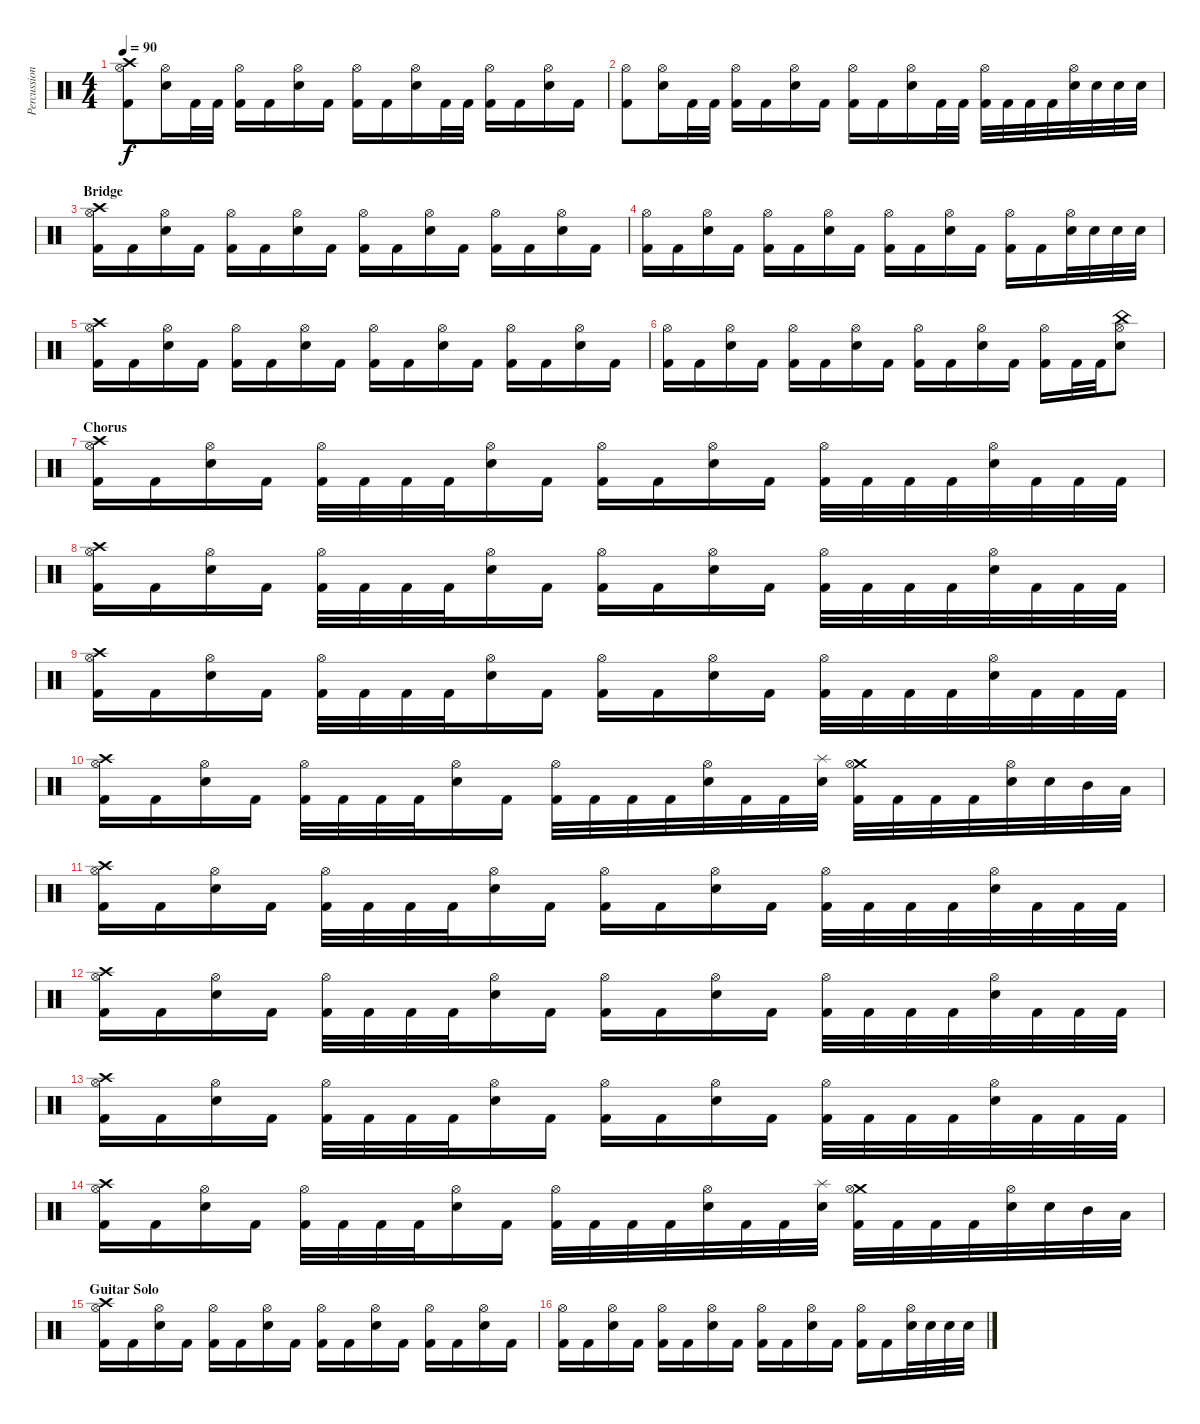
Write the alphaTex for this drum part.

\track ("Percussions" "Percussion") {instrument percussion}
\staff {score}
\articulation defaults
\ts (4 4)
\tempo 90
\clef neutral
\ks c
("Crash high (hit)" "Hi-Hat (open)" "Kick (hit) 2").8{dy f} ("Hi-Hat (open)" "Electric Snare (hit)").16 "Kick (hit) 2".32 "Kick (hit) 2".32 ("Hi-Hat (open)" "Kick (hit) 2").16 "Kick (hit) 2".16 ("Hi-Hat (open)" "Electric Snare (hit)").16 "Kick (hit) 2".16 ("Hi-Hat (open)" "Kick (hit) 2").16 "Kick (hit) 2".16 ("Hi-Hat (open)" "Electric Snare (hit)").16 "Kick (hit) 2".32 "Kick (hit) 2".32 ("Hi-Hat (open)" "Kick (hit) 2").16 "Kick (hit) 2".16 ("Hi-Hat (open)" "Electric Snare (hit)").16 "Kick (hit) 2".16 |
("Hi-Hat (open)" "Kick (hit) 2").8 ("Hi-Hat (open)" "Electric Snare (hit)").16 "Kick (hit) 2".32 "Kick (hit) 2".32 ("Hi-Hat (open)" "Kick (hit) 2").16 "Kick (hit) 2".16 ("Hi-Hat (open)" "Electric Snare (hit)").16 "Kick (hit) 2".16 ("Hi-Hat (open)" "Kick (hit) 2").16 "Kick (hit) 2".16 ("Hi-Hat (open)" "Electric Snare (hit)").16 "Kick (hit) 2".32 "Kick (hit) 2".32 ("Hi-Hat (open)" "Kick (hit) 2").32 "Kick (hit) 2".32 "Kick (hit) 2".32 "Kick (hit) 2".32 ("Hi-Hat (open)" "Electric Snare (hit)").32 "Electric Snare (hit)".32 "Electric Snare (hit)".32 "Electric Snare (hit)".32 |
\section ("" "Bridge")
("Crash high (hit)" "Hi-Hat (open)" "Kick (hit) 2").16 "Kick (hit) 2".16 ("Hi-Hat (open)" "Electric Snare (hit)").16 "Kick (hit) 2".16 ("Hi-Hat (open)" "Kick (hit) 2").16 "Kick (hit) 2".16 ("Hi-Hat (open)" "Electric Snare (hit)").16 "Kick (hit) 2".16 ("Hi-Hat (open)" "Kick (hit) 2").16 "Kick (hit) 2".16 ("Hi-Hat (open)" "Electric Snare (hit)").16 "Kick (hit) 2".16 ("Hi-Hat (open)" "Kick (hit) 2").16 "Kick (hit) 2".16 ("Hi-Hat (open)" "Electric Snare (hit)").16 "Kick (hit) 2".16 |
("Hi-Hat (open)" "Kick (hit) 2").16 "Kick (hit) 2".16 ("Hi-Hat (open)" "Electric Snare (hit)").16 "Kick (hit) 2".16 ("Hi-Hat (open)" "Kick (hit) 2").16 "Kick (hit) 2".16 ("Hi-Hat (open)" "Electric Snare (hit)").16 "Kick (hit) 2".16 ("Hi-Hat (open)" "Kick (hit) 2").16 "Kick (hit) 2".16 ("Hi-Hat (open)" "Electric Snare (hit)").16 "Kick (hit) 2".16 ("Hi-Hat (open)" "Kick (hit) 2").16 "Kick (hit) 2".16 ("Hi-Hat (open)" "Electric Snare (hit)").32 "Electric Snare (hit)".32 "Electric Snare (hit)".32 "Electric Snare (hit)".32 |
("Crash high (hit)" "Hi-Hat (open)" "Kick (hit) 2").16 "Kick (hit) 2".16 ("Hi-Hat (open)" "Electric Snare (hit)").16 "Kick (hit) 2".16 ("Hi-Hat (open)" "Kick (hit) 2").16 "Kick (hit) 2".16 ("Hi-Hat (open)" "Electric Snare (hit)").16 "Kick (hit) 2".16 ("Hi-Hat (open)" "Kick (hit) 2").16 "Kick (hit) 2".16 ("Hi-Hat (open)" "Electric Snare (hit)").16 "Kick (hit) 2".16 ("Hi-Hat (open)" "Kick (hit) 2").16 "Kick (hit) 2".16 ("Hi-Hat (open)" "Electric Snare (hit)").16 "Kick (hit) 2".16 |
("Hi-Hat (open)" "Kick (hit) 2").16 "Kick (hit) 2".16 ("Hi-Hat (open)" "Electric Snare (hit)").16 "Kick (hit) 2".16 ("Hi-Hat (open)" "Kick (hit) 2").16 "Kick (hit) 2".16 ("Hi-Hat (open)" "Electric Snare (hit)").16 "Kick (hit) 2".16 ("Hi-Hat (open)" "Kick (hit) 2").16 "Kick (hit) 2".16 ("Hi-Hat (open)" "Electric Snare (hit)").16 "Kick (hit) 2".16 ("Hi-Hat (open)" "Kick (hit) 2").16 "Kick (hit) 2".32 "Kick (hit) 2".32 ("China (hit)" "Hi-Hat (open)" "Electric Snare (hit)").8 |
\section ("" "Chorus")
("Crash high (hit)" "Hi-Hat (open)" "Kick (hit) 2").16 "Kick (hit) 2".16 ("Hi-Hat (open)" "Electric Snare (hit)").16 "Kick (hit) 2".16 ("Hi-Hat (open)" "Kick (hit) 2").32 "Kick (hit) 2".32 "Kick (hit) 2".32 "Kick (hit) 2".32 ("Hi-Hat (open)" "Electric Snare (hit)").16 "Kick (hit) 2".16 ("Hi-Hat (open)" "Kick (hit) 2").16 "Kick (hit) 2".16 ("Hi-Hat (open)" "Electric Snare (hit)").16 "Kick (hit) 2".16 ("Hi-Hat (open)" "Kick (hit) 2").32 "Kick (hit) 2".32 "Kick (hit) 2".32 "Kick (hit) 2".32 ("Hi-Hat (open)" "Electric Snare (hit)").32 "Kick (hit) 2".32 "Kick (hit) 2".32 "Kick (hit) 2".32 |
("Crash high (hit)" "Hi-Hat (open)" "Kick (hit) 2").16 "Kick (hit) 2".16 ("Hi-Hat (open)" "Electric Snare (hit)").16 "Kick (hit) 2".16 ("Hi-Hat (open)" "Kick (hit) 2").32 "Kick (hit) 2".32 "Kick (hit) 2".32 "Kick (hit) 2".32 ("Hi-Hat (open)" "Electric Snare (hit)").16 "Kick (hit) 2".16 ("Hi-Hat (open)" "Kick (hit) 2").16 "Kick (hit) 2".16 ("Hi-Hat (open)" "Electric Snare (hit)").16 "Kick (hit) 2".16 ("Hi-Hat (open)" "Kick (hit) 2").32 "Kick (hit) 2".32 "Kick (hit) 2".32 "Kick (hit) 2".32 ("Hi-Hat (open)" "Electric Snare (hit)").32 "Kick (hit) 2".32 "Kick (hit) 2".32 "Kick (hit) 2".32 |
("Crash high (hit)" "Hi-Hat (open)" "Kick (hit) 2").16 "Kick (hit) 2".16 ("Hi-Hat (open)" "Electric Snare (hit)").16 "Kick (hit) 2".16 ("Hi-Hat (open)" "Kick (hit) 2").32 "Kick (hit) 2".32 "Kick (hit) 2".32 "Kick (hit) 2".32 ("Hi-Hat (open)" "Electric Snare (hit)").16 "Kick (hit) 2".16 ("Hi-Hat (open)" "Kick (hit) 2").16 "Kick (hit) 2".16 ("Hi-Hat (open)" "Electric Snare (hit)").16 "Kick (hit) 2".16 ("Hi-Hat (open)" "Kick (hit) 2").32 "Kick (hit) 2".32 "Kick (hit) 2".32 "Kick (hit) 2".32 ("Hi-Hat (open)" "Electric Snare (hit)").32 "Kick (hit) 2".32 "Kick (hit) 2".32 "Kick (hit) 2".32 |
("Crash high (hit)" "Hi-Hat (open)" "Kick (hit) 2").16 "Kick (hit) 2".16 ("Hi-Hat (open)" "Electric Snare (hit)").16 "Kick (hit) 2".16 ("Hi-Hat (open)" "Kick (hit) 2").32 "Kick (hit) 2".32 "Kick (hit) 2".32 "Kick (hit) 2".32 ("Hi-Hat (open)" "Electric Snare (hit)").16 "Kick (hit) 2".16 ("Hi-Hat (open)" "Kick (hit) 2").32 "Kick (hit) 2".32 "Kick (hit) 2".32 "Kick (hit) 2".32 ("Hi-Hat (open)" "Electric Snare (hit)").32 "Kick (hit) 2".32 "Kick (hit) 2".32 ("Splash (hit)" "Electric Snare (hit)").32 ("Crash medium (hit)" "Hi-Hat (open)" "Kick (hit) 2").32 "Kick (hit) 2".32 "Kick (hit) 2".32 "Kick (hit) 2".32 ("Hi-Hat (open)" "Electric Snare (hit)").32 "Electric Snare (hit)".32 "Mid Tom (hit)".32 "Low Tom (hit)".32 |
("Crash high (hit)" "Hi-Hat (open)" "Kick (hit) 2").16 "Kick (hit) 2".16 ("Hi-Hat (open)" "Electric Snare (hit)").16 "Kick (hit) 2".16 ("Hi-Hat (open)" "Kick (hit) 2").32 "Kick (hit) 2".32 "Kick (hit) 2".32 "Kick (hit) 2".32 ("Hi-Hat (open)" "Electric Snare (hit)").16 "Kick (hit) 2".16 ("Hi-Hat (open)" "Kick (hit) 2").16 "Kick (hit) 2".16 ("Hi-Hat (open)" "Electric Snare (hit)").16 "Kick (hit) 2".16 ("Hi-Hat (open)" "Kick (hit) 2").32 "Kick (hit) 2".32 "Kick (hit) 2".32 "Kick (hit) 2".32 ("Hi-Hat (open)" "Electric Snare (hit)").32 "Kick (hit) 2".32 "Kick (hit) 2".32 "Kick (hit) 2".32 |
("Crash high (hit)" "Hi-Hat (open)" "Kick (hit) 2").16 "Kick (hit) 2".16 ("Hi-Hat (open)" "Electric Snare (hit)").16 "Kick (hit) 2".16 ("Hi-Hat (open)" "Kick (hit) 2").32 "Kick (hit) 2".32 "Kick (hit) 2".32 "Kick (hit) 2".32 ("Hi-Hat (open)" "Electric Snare (hit)").16 "Kick (hit) 2".16 ("Hi-Hat (open)" "Kick (hit) 2").16 "Kick (hit) 2".16 ("Hi-Hat (open)" "Electric Snare (hit)").16 "Kick (hit) 2".16 ("Hi-Hat (open)" "Kick (hit) 2").32 "Kick (hit) 2".32 "Kick (hit) 2".32 "Kick (hit) 2".32 ("Hi-Hat (open)" "Electric Snare (hit)").32 "Kick (hit) 2".32 "Kick (hit) 2".32 "Kick (hit) 2".32 |
("Crash high (hit)" "Hi-Hat (open)" "Kick (hit) 2").16 "Kick (hit) 2".16 ("Hi-Hat (open)" "Electric Snare (hit)").16 "Kick (hit) 2".16 ("Hi-Hat (open)" "Kick (hit) 2").32 "Kick (hit) 2".32 "Kick (hit) 2".32 "Kick (hit) 2".32 ("Hi-Hat (open)" "Electric Snare (hit)").16 "Kick (hit) 2".16 ("Hi-Hat (open)" "Kick (hit) 2").16 "Kick (hit) 2".16 ("Hi-Hat (open)" "Electric Snare (hit)").16 "Kick (hit) 2".16 ("Hi-Hat (open)" "Kick (hit) 2").32 "Kick (hit) 2".32 "Kick (hit) 2".32 "Kick (hit) 2".32 ("Hi-Hat (open)" "Electric Snare (hit)").32 "Kick (hit) 2".32 "Kick (hit) 2".32 "Kick (hit) 2".32 |
("Crash high (hit)" "Hi-Hat (open)" "Kick (hit) 2").16 "Kick (hit) 2".16 ("Hi-Hat (open)" "Electric Snare (hit)").16 "Kick (hit) 2".16 ("Hi-Hat (open)" "Kick (hit) 2").32 "Kick (hit) 2".32 "Kick (hit) 2".32 "Kick (hit) 2".32 ("Hi-Hat (open)" "Electric Snare (hit)").16 "Kick (hit) 2".16 ("Hi-Hat (open)" "Kick (hit) 2").32 "Kick (hit) 2".32 "Kick (hit) 2".32 "Kick (hit) 2".32 ("Hi-Hat (open)" "Electric Snare (hit)").32 "Kick (hit) 2".32 "Kick (hit) 2".32 ("Splash (hit)" "Electric Snare (hit)").32 ("Crash medium (hit)" "Hi-Hat (open)" "Kick (hit) 2").32 "Kick (hit) 2".32 "Kick (hit) 2".32 "Kick (hit) 2".32 ("Hi-Hat (open)" "Electric Snare (hit)").32 "Electric Snare (hit)".32 "Mid Tom (hit)".32 "Low Tom (hit)".32 |
\section ("" "Guitar Solo")
("Crash high (hit)" "Hi-Hat (open)" "Kick (hit) 2").16 "Kick (hit) 2".16 ("Hi-Hat (open)" "Electric Snare (hit)").16 "Kick (hit) 2".16 ("Hi-Hat (open)" "Kick (hit) 2").16 "Kick (hit) 2".16 ("Hi-Hat (open)" "Electric Snare (hit)").16 "Kick (hit) 2".16 ("Hi-Hat (open)" "Kick (hit) 2").16 "Kick (hit) 2".16 ("Hi-Hat (open)" "Electric Snare (hit)").16 "Kick (hit) 2".16 ("Hi-Hat (open)" "Kick (hit) 2").16 "Kick (hit) 2".16 ("Hi-Hat (open)" "Electric Snare (hit)").16 "Kick (hit) 2".16 |
("Hi-Hat (open)" "Kick (hit) 2").16 "Kick (hit) 2".16 ("Hi-Hat (open)" "Electric Snare (hit)").16 "Kick (hit) 2".16 ("Hi-Hat (open)" "Kick (hit) 2").16 "Kick (hit) 2".16 ("Hi-Hat (open)" "Electric Snare (hit)").16 "Kick (hit) 2".16 ("Hi-Hat (open)" "Kick (hit) 2").16 "Kick (hit) 2".16 ("Hi-Hat (open)" "Electric Snare (hit)").16 "Kick (hit) 2".16 ("Hi-Hat (open)" "Kick (hit) 2").16 "Kick (hit) 2".16 ("Hi-Hat (open)" "Electric Snare (hit)").32 "Electric Snare (hit)".32 "Electric Snare (hit)".32 "Electric Snare (hit)".32
